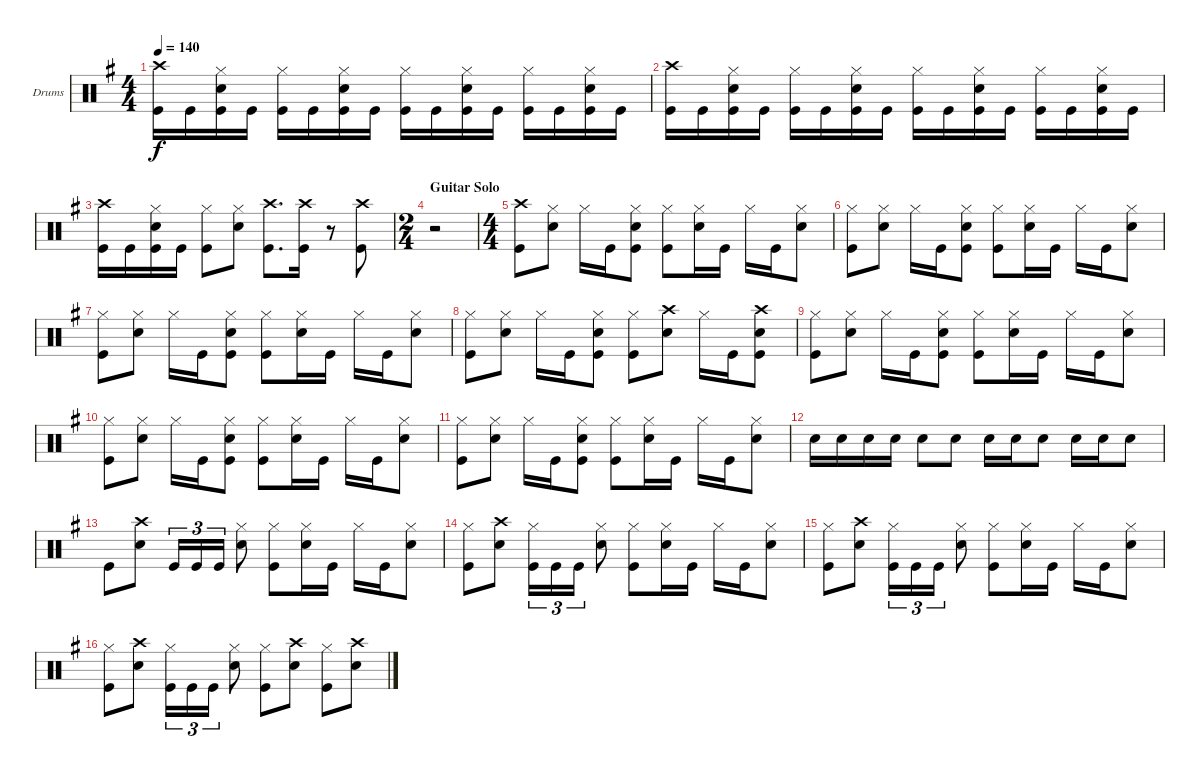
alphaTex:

\bracketExtendMode groupsimilarinstruments
\firstSystemTrackNameOrientation horizontal
\otherSystemsTrackNameOrientation horizontal
\track ("Drumkit" "Drums") {instrument percussion}
\staff {score}
\articulation defaults
\ts (4 4)
\tempo 140
\clef neutral
\scale
1.04288
\ks g
("Crash high (hit)" "Kick (hit)").16{dy f} "Kick (hit)".16 ("Snare (hit) 2" "Hi-Hat (closed)" "Kick (hit)").16 "Kick (hit)".16 ("Hi-Hat (closed)" "Kick (hit)").16 "Kick (hit)".16 ("Snare (hit) 2" "Hi-Hat (closed)" "Kick (hit)").16 "Kick (hit)".16 ("Hi-Hat (closed)" "Kick (hit)").16 "Kick (hit)".16 ("Snare (hit) 2" "Hi-Hat (closed)" "Kick (hit)").16 "Kick (hit)".16 ("Hi-Hat (closed)" "Kick (hit)").16 "Kick (hit)".16 ("Snare (hit) 2" "Hi-Hat (closed)" "Kick (hit)").16 "Kick (hit)".16 |
\scale
0.957125 ("Crash high (hit)" "Kick (hit)").16 "Kick (hit)".16 ("Snare (hit) 2" "Hi-Hat (closed)" "Kick (hit)").16 "Kick (hit)".16 ("Hi-Hat (closed)" "Kick (hit)").16 "Kick (hit)".16 ("Snare (hit) 2" "Hi-Hat (closed)" "Kick (hit)").16 "Kick (hit)".16 ("Hi-Hat (closed)" "Kick (hit)").16 "Kick (hit)".16 ("Snare (hit) 2" "Hi-Hat (closed)" "Kick (hit)").16 "Kick (hit)".16 ("Hi-Hat (closed)" "Kick (hit)").16 "Kick (hit)".16 ("Snare (hit) 2" "Hi-Hat (closed)" "Kick (hit)").16 "Kick (hit)".16 |
\scale
1.04288 ("Crash high (hit)" "Kick (hit)").16 "Kick (hit)".16 ("Snare (hit) 2" "Hi-Hat (closed)" "Kick (hit)").16 "Kick (hit)".16 ("Hi-Hat (closed)" "Kick (hit)").8 ("Snare (hit) 2" "Hi-Hat (closed)").8 ("Crash high (hit)" "Kick (hit)").8{d} ("Crash high (hit)" "Kick (hit)").16 r.8 ("Crash high (hit)" "Kick (hit)").8 |
\ts (2 4)
\section ("" "Guitar Solo")
\scale
0.957125 r.2 |
\ts (4 4)
\scale
1.07314 ("Crash high (hit)" "Kick (hit)").8 ("Snare (hit) 2" "Hi-Hat (closed)").8 "Hi-Hat (closed)".16 "Kick (hit)".16 ("Kick (hit)" "Snare (hit) 2" "Hi-Hat (closed)").8 ("Kick (hit)" "Hi-Hat (closed)").8 ("Snare (hit) 2" "Hi-Hat (closed)").16 "Kick (hit)".16 "Hi-Hat (closed)".16 "Kick (hit)".16 ("Snare (hit) 2" "Hi-Hat (closed)").8 |
\scale
0.92686 ("Hi-Hat (closed)" "Kick (hit)").8 ("Snare (hit) 2" "Hi-Hat (closed)").8 "Hi-Hat (closed)".16 "Kick (hit)".16 ("Snare (hit) 2" "Hi-Hat (closed)" "Kick (hit)").8 ("Hi-Hat (closed)" "Kick (hit)").8 ("Snare (hit) 2" "Hi-Hat (closed)").16 "Kick (hit)".16 "Hi-Hat (closed)".16 "Kick (hit)".16 ("Snare (hit) 2" "Hi-Hat (closed)").8 |
\scale
1.04288 ("Hi-Hat (closed)" "Kick (hit)").8 ("Snare (hit) 2" "Hi-Hat (closed)").8 "Hi-Hat (closed)".16 "Kick (hit)".16 ("Kick (hit)" "Snare (hit) 2" "Hi-Hat (closed)").8 ("Kick (hit)" "Hi-Hat (closed)").8 ("Snare (hit) 2" "Hi-Hat (closed)").16 "Kick (hit)".16 "Hi-Hat (closed)".16 "Kick (hit)".16 ("Snare (hit) 2" "Hi-Hat (closed)").8 |
\scale
0.957125 ("Hi-Hat (closed)" "Kick (hit)").8 ("Snare (hit) 2" "Hi-Hat (closed)").8 "Hi-Hat (closed)".16 "Kick (hit)".16 ("Kick (hit)" "Snare (hit) 2" "Hi-Hat (closed)").8 ("Hi-Hat (closed)" "Kick (hit)").8 ("Crash high (hit)" "Snare (hit) 2").8 "Hi-Hat (closed)".16 "Kick (hit)".16 ("Kick (hit)" "Crash high (hit)" "Snare (hit) 2").8 |
\scale
1.04288 ("Hi-Hat (closed)" "Kick (hit)").8 ("Snare (hit) 2" "Hi-Hat (closed)").8 "Hi-Hat (closed)".16 "Kick (hit)".16 ("Kick (hit)" "Snare (hit) 2" "Hi-Hat (closed)").8 ("Kick (hit)" "Hi-Hat (closed)").8 ("Snare (hit) 2" "Hi-Hat (closed)").16 "Kick (hit)".16 "Hi-Hat (closed)".16 "Kick (hit)".16 ("Snare (hit) 2" "Hi-Hat (closed)").8 |
\scale
0.957125 ("Hi-Hat (closed)" "Kick (hit)").8 ("Snare (hit) 2" "Hi-Hat (closed)").8 "Hi-Hat (closed)".16 "Kick (hit)".16 ("Snare (hit) 2" "Hi-Hat (closed)" "Kick (hit)").8 ("Hi-Hat (closed)" "Kick (hit)").8 ("Snare (hit) 2" "Hi-Hat (closed)").16 "Kick (hit)".16 "Hi-Hat (closed)".16 "Kick (hit)".16 ("Snare (hit) 2" "Hi-Hat (closed)").8 |
\scale
1.04288 ("Hi-Hat (closed)" "Kick (hit)").8 ("Snare (hit) 2" "Hi-Hat (closed)").8 "Hi-Hat (closed)".16 "Kick (hit)".16 ("Kick (hit)" "Snare (hit) 2" "Hi-Hat (closed)").8 ("Kick (hit)" "Hi-Hat (closed)").8 ("Snare (hit) 2" "Hi-Hat (closed)").16 "Kick (hit)".16 "Hi-Hat (closed)".16 "Kick (hit)".16 ("Snare (hit) 2" "Hi-Hat (closed)").8 |
\scale
0.957125 "Snare (hit) 2".16 "Snare (hit) 2".16 "Snare (hit) 2".16 "Snare (hit) 2".16 "Snare (hit) 2".8 "Snare (hit) 2".8 "Snare (hit) 2".16 "Snare (hit) 2".16 "Snare (hit) 2".8 "Snare (hit) 2".16 "Snare (hit) 2".16 "Snare (hit) 2".8 |
\scale
1.04288 "Kick (hit)".8 ("Snare (hit) 2" "Crash high (hit)").8 "Kick (hit)".16{tu (3 2)} "Kick (hit)".16{tu (3 2)} "Kick (hit)".16{tu (3 2)} ("Hi-Hat (closed)" "Snare (hit) 2").8 ("Hi-Hat (closed)" "Kick (hit)").8 ("Snare (hit) 2" "Hi-Hat (closed)").16 "Kick (hit)".16 "Hi-Hat (closed)".16 "Kick (hit)".16 ("Snare (hit) 2" "Hi-Hat (closed)").8 |
\scale
0.957125 ("Hi-Hat (closed)" "Kick (hit)").8 ("Crash high (hit)" "Snare (hit) 2").8 ("Hi-Hat (closed)" "Kick (hit)").16{tu (3 2)} "Kick (hit)".16{tu (3 2)} "Kick (hit)".16{tu (3 2)} ("Snare (hit) 2" "Hi-Hat (closed)").8 ("Hi-Hat (closed)" "Kick (hit)").8 ("Snare (hit) 2" "Hi-Hat (closed)").16 "Kick (hit)".16 "Hi-Hat (closed)".16 "Kick (hit)".16 ("Snare (hit) 2" "Hi-Hat (closed)").8 |
\scale
1.04288 ("Hi-Hat (closed)" "Kick (hit)").8 ("Crash high (hit)" "Snare (hit) 2").8 ("Hi-Hat (closed)" "Kick (hit)").16{tu (3 2)} "Kick (hit)".16{tu (3 2)} "Kick (hit)".16{tu (3 2)} ("Snare (hit) 2" "Hi-Hat (closed)").8 ("Hi-Hat (closed)" "Kick (hit)").8 ("Snare (hit) 2" "Hi-Hat (closed)").16 "Kick (hit)".16 "Hi-Hat (closed)".16 "Kick (hit)".16 ("Snare (hit) 2" "Hi-Hat (closed)").8 |
\scale
0.957125 ("Kick (hit)" "Hi-Hat (closed)").8 ("Crash high (hit)" "Snare (hit) 2").8 ("Hi-Hat (closed)" "Kick (hit)").16{tu (3 2)} "Kick (hit)".16{tu (3 2)} "Kick (hit)".16{tu (3 2)} ("Snare (hit) 2" "Hi-Hat (closed)").8 ("Kick (hit)" "Hi-Hat (closed)").8 ("Crash high (hit)" "Snare (hit) 2").8 ("Kick (hit)" "Hi-Hat (closed)").8 ("Crash high (hit)" "Snare (hit) 2").8
